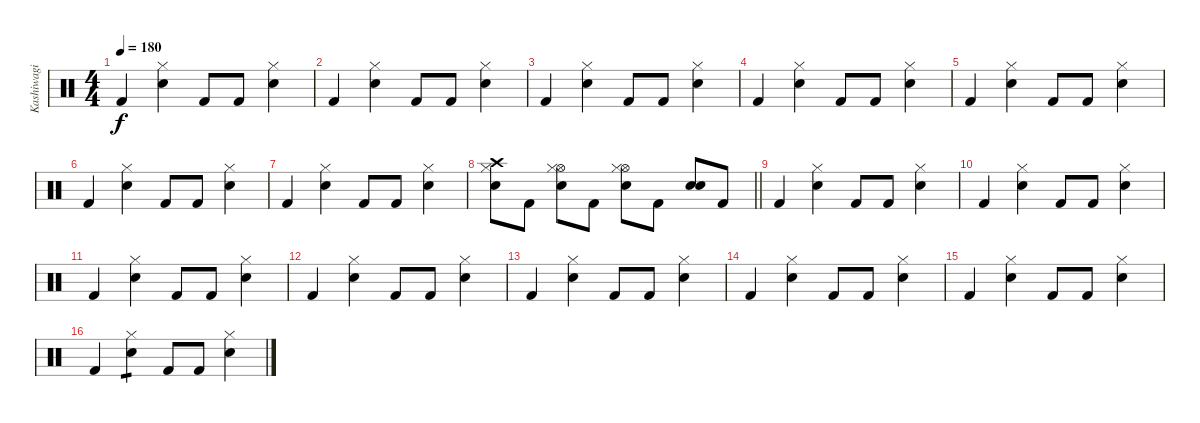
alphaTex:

\track ("Kashiwagi Yuki" "Kashiwagi ") {instrument percussion}
\staff {score}
\articulation defaults
\ts (4 4)
\tempo 180
\clef neutral
\ks c "Kick (hit) 2".4{dy f}
("Hi-Hat (closed)" "Electric Snare (hit)").4 "Kick (hit) 2".8 "Kick (hit) 2".8 ("Hi-Hat (closed)" "Electric Snare (hit)").4 |
"Kick (hit) 2".4 ("Hi-Hat (closed)" "Electric Snare (hit)").4 "Kick (hit) 2".8 "Kick (hit) 2".8 ("Hi-Hat (closed)" "Electric Snare (hit)").4 |
"Kick (hit) 2".4 ("Hi-Hat (closed)" "Electric Snare (hit)").4 "Kick (hit) 2".8 "Kick (hit) 2".8 ("Hi-Hat (closed)" "Electric Snare (hit)").4 |
"Kick (hit) 2".4 ("Hi-Hat (closed)" "Electric Snare (hit)").4 "Kick (hit) 2".8 "Kick (hit) 2".8 ("Hi-Hat (closed)" "Electric Snare (hit)").4 |
"Kick (hit) 2".4 ("Hi-Hat (closed)" "Electric Snare (hit)").4 "Kick (hit) 2".8 "Kick (hit) 2".8 ("Hi-Hat (closed)" "Electric Snare (hit)").4 |
"Kick (hit) 2".4 ("Hi-Hat (closed)" "Electric Snare (hit)").4 "Kick (hit) 2".8 "Kick (hit) 2".8 ("Hi-Hat (closed)" "Electric Snare (hit)").4 |
"Kick (hit) 2".4 ("Hi-Hat (closed)" "Electric Snare (hit)").4 "Kick (hit) 2".8 "Kick (hit) 2".8 ("Hi-Hat (closed)" "Electric Snare (hit)").4 |
\barLineRight lightlight
("Crash high (hit)" "Hi-Hat (closed)" "Electric Snare (hit)").8 "Kick (hit) 2".8 ("Hi-Hat (open)" "Hi-Hat (closed)" "Electric Snare (hit)").8 "Kick (hit) 2".8 ("Hi-Hat (open)" "Hi-Hat (closed)" "Electric Snare (hit)").8 "Kick (hit) 2".8 ("Electric Snare (hit)" "Electric Snare (hit)").8 "Kick (hit) 2".8 |
"Kick (hit) 2".4 ("Hi-Hat (closed)" "Electric Snare (hit)").4 "Kick (hit) 2".8 "Kick (hit) 2".8 ("Hi-Hat (closed)" "Electric Snare (hit)").4 |
"Kick (hit) 2".4 ("Hi-Hat (closed)" "Electric Snare (hit)").4 "Kick (hit) 2".8 "Kick (hit) 2".8 ("Hi-Hat (closed)" "Electric Snare (hit)").4 |
"Kick (hit) 2".4 ("Hi-Hat (closed)" "Electric Snare (hit)").4 "Kick (hit) 2".8 "Kick (hit) 2".8 ("Hi-Hat (closed)" "Electric Snare (hit)").4 |
"Kick (hit) 2".4 ("Hi-Hat (closed)" "Electric Snare (hit)").4 "Kick (hit) 2".8 "Kick (hit) 2".8 ("Hi-Hat (closed)" "Electric Snare (hit)").4 |
"Kick (hit) 2".4 ("Hi-Hat (closed)" "Electric Snare (hit)").4 "Kick (hit) 2".8 "Kick (hit) 2".8 ("Hi-Hat (closed)" "Electric Snare (hit)").4 |
"Kick (hit) 2".4 ("Hi-Hat (closed)" "Electric Snare (hit)").4 "Kick (hit) 2".8 "Kick (hit) 2".8 ("Hi-Hat (closed)" "Electric Snare (hit)").4 |
"Kick (hit) 2".4 ("Hi-Hat (closed)" "Electric Snare (hit)").4 "Kick (hit) 2".8 "Kick (hit) 2".8 ("Hi-Hat (closed)" "Electric Snare (hit)").4 |
"Kick (hit) 2".4 ("Hi-Hat (closed)" "Electric Snare (hit)").4{tp 1} "Kick (hit) 2".8 "Kick (hit) 2".8 ("Hi-Hat (closed)" "Electric Snare (hit)").4
